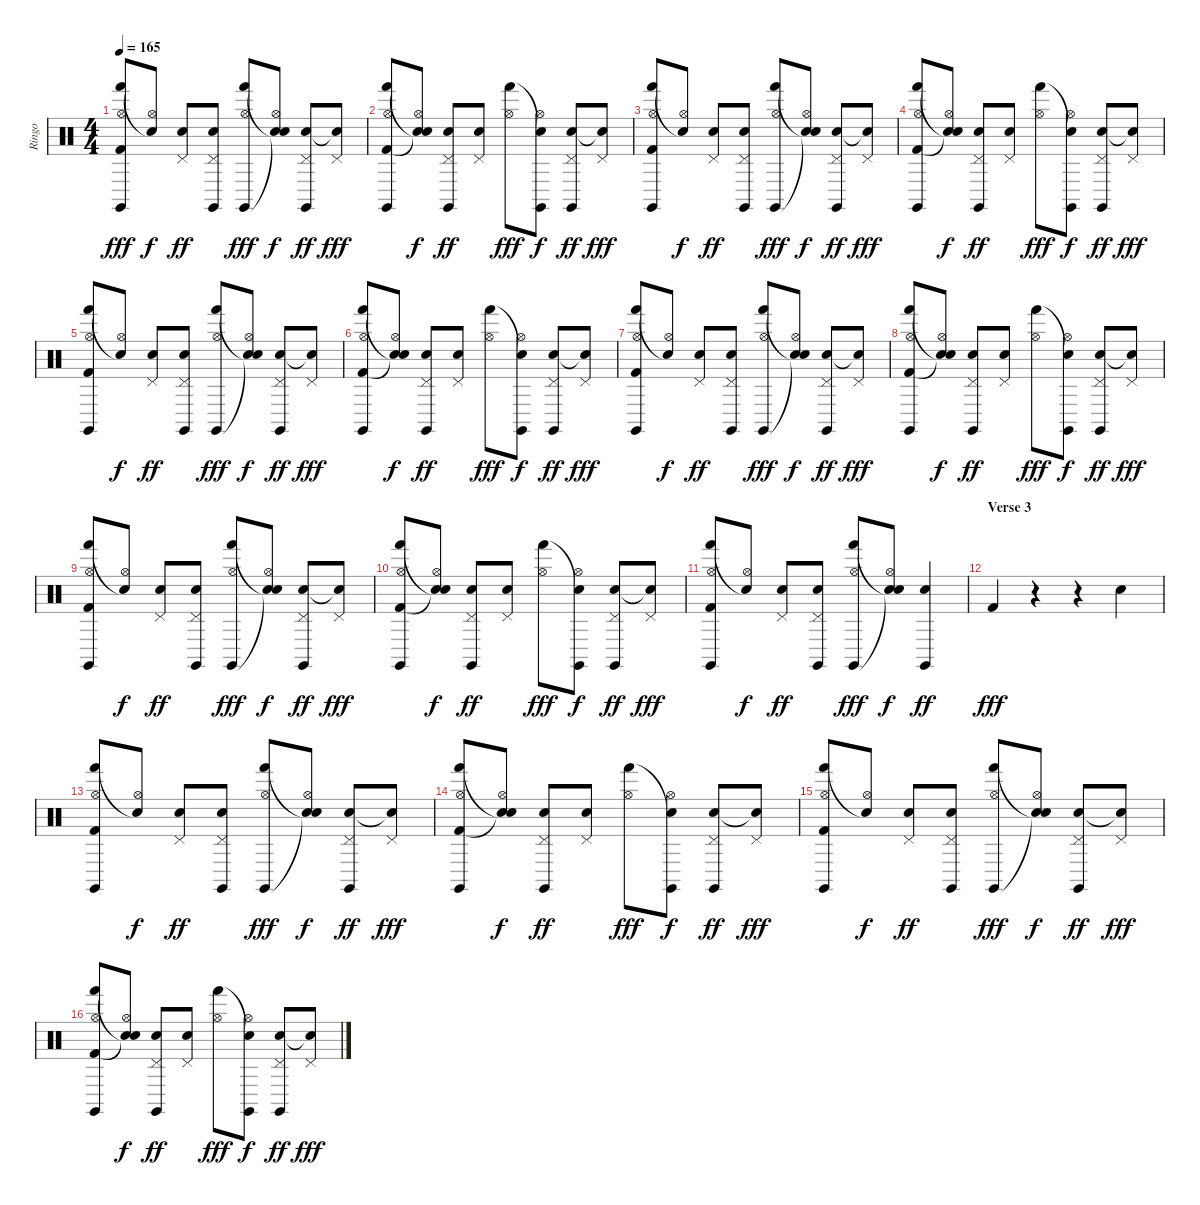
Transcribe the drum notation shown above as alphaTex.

\track ("Ringo" "Ringo") {instrument percussion}
\staff {score}
\articulation defaults
\ts (4 4)
\tempo 165
\clef neutral
\ks c
("Hand (hit)" "Hi-Hat (open)" "Kick (hit) 2" "Claves (hit)").8{dy fff} ("Snare (hit)"{t} "Hi-Hat (open)").8{dy f} ("Pedal Hi-Hat (hit)" "Snare (hit) 2").8{dy ff} ("Pedal Hi-Hat (hit)" "Snare (hit) 2" "Claves (hit)").8 ("Hand (hit)" "Hi-Hat (open)" "Claves (hit)").8{dy fff} ("Snare (hit)"{t} "Hi-Hat (open)" "Snare (hit)"{t}).8{dy f} ("Pedal Hi-Hat (hit)" "Snare (hit) 2" "Claves (hit)").8{dy ff} ("Pedal Hi-Hat (hit)" "Snare (hit)"{t}).8{dy fff} |
("Hand (hit)" "Hi-Hat (open)" "Kick (hit) 2" "Claves (hit)").8 ("Snare (hit)"{t} "Hi-Hat (open)" "Snare (hit)"{t}).8{dy f} ("Pedal Hi-Hat (hit)" "Snare (hit) 2" "Claves (hit)").8{dy ff} ("Pedal Hi-Hat (hit)" "Snare (hit) 2").8 ("Hand (hit)" "Hi-Hat (open)").8{dy fff} ("Snare (hit)"{t} "Hi-Hat (open)" "Claves (hit)").8{dy f} ("Pedal Hi-Hat (hit)" "Snare (hit) 2" "Claves (hit)").8{dy ff} ("Pedal Hi-Hat (hit)" "Snare (hit)"{t}).8{dy fff} |
("Hand (hit)" "Hi-Hat (open)" "Kick (hit) 2" "Claves (hit)").8 ("Snare (hit)"{t} "Hi-Hat (open)").8{dy f} ("Pedal Hi-Hat (hit)" "Snare (hit) 2").8{dy ff} ("Pedal Hi-Hat (hit)" "Snare (hit) 2" "Claves (hit)").8 ("Hand (hit)" "Hi-Hat (open)" "Claves (hit)").8{dy fff} ("Snare (hit)"{t} "Hi-Hat (open)" "Snare (hit)"{t}).8{dy f} ("Pedal Hi-Hat (hit)" "Snare (hit) 2" "Claves (hit)").8{dy ff} ("Pedal Hi-Hat (hit)" "Snare (hit)"{t}).8{dy fff} |
("Hand (hit)" "Hi-Hat (open)" "Kick (hit) 2" "Claves (hit)").8 ("Snare (hit)"{t} "Hi-Hat (open)" "Snare (hit)"{t}).8{dy f} ("Pedal Hi-Hat (hit)" "Snare (hit) 2" "Claves (hit)").8{dy ff} ("Pedal Hi-Hat (hit)" "Snare (hit) 2").8 ("Hand (hit)" "Hi-Hat (open)").8{dy fff} ("Snare (hit)"{t} "Hi-Hat (open)" "Claves (hit)").8{dy f} ("Pedal Hi-Hat (hit)" "Snare (hit) 2" "Claves (hit)").8{dy ff} ("Pedal Hi-Hat (hit)" "Snare (hit)"{t}).8{dy fff} |
("Hand (hit)" "Hi-Hat (open)" "Kick (hit) 2" "Claves (hit)").8 ("Snare (hit)"{t} "Hi-Hat (open)").8{dy f} ("Pedal Hi-Hat (hit)" "Snare (hit) 2").8{dy ff} ("Pedal Hi-Hat (hit)" "Snare (hit) 2" "Claves (hit)").8 ("Hand (hit)" "Hi-Hat (open)" "Claves (hit)").8{dy fff} ("Snare (hit)"{t} "Hi-Hat (open)" "Snare (hit)"{t}).8{dy f} ("Pedal Hi-Hat (hit)" "Snare (hit) 2" "Claves (hit)").8{dy ff} ("Pedal Hi-Hat (hit)" "Snare (hit)"{t}).8{dy fff} |
("Hand (hit)" "Hi-Hat (open)" "Kick (hit) 2" "Claves (hit)").8 ("Snare (hit)"{t} "Hi-Hat (open)" "Snare (hit)"{t}).8{dy f} ("Pedal Hi-Hat (hit)" "Snare (hit) 2" "Claves (hit)").8{dy ff} ("Pedal Hi-Hat (hit)" "Snare (hit) 2").8 ("Hand (hit)" "Hi-Hat (open)").8{dy fff} ("Snare (hit)"{t} "Hi-Hat (open)" "Claves (hit)").8{dy f} ("Pedal Hi-Hat (hit)" "Snare (hit) 2" "Claves (hit)").8{dy ff} ("Pedal Hi-Hat (hit)" "Snare (hit)"{t}).8{dy fff} |
("Hand (hit)" "Hi-Hat (open)" "Kick (hit) 2" "Claves (hit)").8 ("Snare (hit)"{t} "Hi-Hat (open)").8{dy f} ("Pedal Hi-Hat (hit)" "Snare (hit) 2").8{dy ff} ("Pedal Hi-Hat (hit)" "Snare (hit) 2" "Claves (hit)").8 ("Hand (hit)" "Hi-Hat (open)" "Claves (hit)").8{dy fff} ("Snare (hit)"{t} "Hi-Hat (open)" "Snare (hit)"{t}).8{dy f} ("Pedal Hi-Hat (hit)" "Snare (hit) 2" "Claves (hit)").8{dy ff} ("Pedal Hi-Hat (hit)" "Snare (hit)"{t}).8{dy fff} |
("Hand (hit)" "Hi-Hat (open)" "Kick (hit) 2" "Claves (hit)").8 ("Snare (hit)"{t} "Hi-Hat (open)" "Snare (hit)"{t}).8{dy f} ("Pedal Hi-Hat (hit)" "Snare (hit) 2" "Claves (hit)").8{dy ff} ("Pedal Hi-Hat (hit)" "Snare (hit) 2").8 ("Hand (hit)" "Hi-Hat (open)").8{dy fff} ("Snare (hit)"{t} "Hi-Hat (open)" "Claves (hit)").8{dy f} ("Pedal Hi-Hat (hit)" "Snare (hit) 2" "Claves (hit)").8{dy ff} ("Pedal Hi-Hat (hit)" "Snare (hit)"{t}).8{dy fff} |
("Hand (hit)" "Hi-Hat (open)" "Kick (hit) 2" "Claves (hit)").8 ("Snare (hit)"{t} "Hi-Hat (open)").8{dy f} ("Pedal Hi-Hat (hit)" "Snare (hit) 2").8{dy ff} ("Pedal Hi-Hat (hit)" "Snare (hit) 2" "Claves (hit)").8 ("Hand (hit)" "Hi-Hat (open)" "Claves (hit)").8{dy fff} ("Snare (hit)"{t} "Hi-Hat (open)" "Snare (hit)"{t}).8{dy f} ("Pedal Hi-Hat (hit)" "Snare (hit) 2" "Claves (hit)").8{dy ff} ("Pedal Hi-Hat (hit)" "Snare (hit)"{t}).8{dy fff} |
("Hand (hit)" "Hi-Hat (open)" "Kick (hit) 2" "Claves (hit)").8 ("Snare (hit)"{t} "Hi-Hat (open)" "Snare (hit)"{t}).8{dy f} ("Pedal Hi-Hat (hit)" "Snare (hit) 2" "Claves (hit)").8{dy ff} ("Pedal Hi-Hat (hit)" "Snare (hit) 2").8 ("Hand (hit)" "Hi-Hat (open)").8{dy fff} ("Snare (hit)"{t} "Hi-Hat (open)" "Claves (hit)").8{dy f} ("Pedal Hi-Hat (hit)" "Snare (hit) 2" "Claves (hit)").8{dy ff} ("Pedal Hi-Hat (hit)" "Snare (hit)"{t}).8{dy fff} |
("Hand (hit)" "Hi-Hat (open)" "Kick (hit) 2" "Claves (hit)").8 ("Snare (hit)"{t} "Hi-Hat (open)").8{dy f} ("Pedal Hi-Hat (hit)" "Snare (hit) 2").8{dy ff} ("Pedal Hi-Hat (hit)" "Snare (hit) 2" "Claves (hit)").8 ("Hand (hit)" "Hi-Hat (open)" "Claves (hit)").8{dy fff} ("Snare (hit)"{t} "Hi-Hat (open)" "Snare (hit)"{t}).8{dy f} ("Snare (hit) 2" "Claves (hit)").4{dy ff} |
\section ("" "Verse 3")
"Kick (hit) 2".4{dy fff} r.4 r.4 "Snare (hit) 2".4 |
("Hand (hit)" "Hi-Hat (open)" "Kick (hit) 2" "Claves (hit)").8 ("Snare (hit)"{t} "Hi-Hat (open)").8{dy f} ("Pedal Hi-Hat (hit)" "Snare (hit) 2").8{dy ff} ("Pedal Hi-Hat (hit)" "Snare (hit) 2" "Claves (hit)").8 ("Hand (hit)" "Hi-Hat (open)" "Claves (hit)").8{dy fff} ("Snare (hit)"{t} "Hi-Hat (open)" "Snare (hit)"{t}).8{dy f} ("Pedal Hi-Hat (hit)" "Snare (hit) 2" "Claves (hit)").8{dy ff} ("Pedal Hi-Hat (hit)" "Snare (hit)"{t}).8{dy fff} |
("Hand (hit)" "Hi-Hat (open)" "Kick (hit) 2" "Claves (hit)").8 ("Snare (hit)"{t} "Hi-Hat (open)" "Snare (hit)"{t}).8{dy f} ("Pedal Hi-Hat (hit)" "Snare (hit) 2" "Claves (hit)").8{dy ff} ("Pedal Hi-Hat (hit)" "Snare (hit) 2").8 ("Hand (hit)" "Hi-Hat (open)").8{dy fff} ("Snare (hit)"{t} "Hi-Hat (open)" "Claves (hit)").8{dy f} ("Pedal Hi-Hat (hit)" "Snare (hit) 2" "Claves (hit)").8{dy ff} ("Pedal Hi-Hat (hit)" "Snare (hit)"{t}).8{dy fff} |
("Hand (hit)" "Hi-Hat (open)" "Kick (hit) 2" "Claves (hit)").8 ("Snare (hit)"{t} "Hi-Hat (open)").8{dy f} ("Pedal Hi-Hat (hit)" "Snare (hit) 2").8{dy ff} ("Pedal Hi-Hat (hit)" "Snare (hit) 2" "Claves (hit)").8 ("Hand (hit)" "Hi-Hat (open)" "Claves (hit)").8{dy fff} ("Snare (hit)"{t} "Hi-Hat (open)" "Snare (hit)"{t}).8{dy f} ("Pedal Hi-Hat (hit)" "Snare (hit) 2" "Claves (hit)").8{dy ff} ("Pedal Hi-Hat (hit)" "Snare (hit)"{t}).8{dy fff} |
("Hand (hit)" "Hi-Hat (open)" "Kick (hit) 2" "Claves (hit)").8 ("Snare (hit)"{t} "Hi-Hat (open)" "Snare (hit)"{t}).8{dy f} ("Pedal Hi-Hat (hit)" "Snare (hit) 2" "Claves (hit)").8{dy ff} ("Pedal Hi-Hat (hit)" "Snare (hit) 2").8 ("Hand (hit)" "Hi-Hat (open)").8{dy fff} ("Snare (hit)"{t} "Hi-Hat (open)" "Claves (hit)").8{dy f} ("Pedal Hi-Hat (hit)" "Snare (hit) 2" "Claves (hit)").8{dy ff} ("Pedal Hi-Hat (hit)" "Snare (hit)"{t}).8{dy fff}
